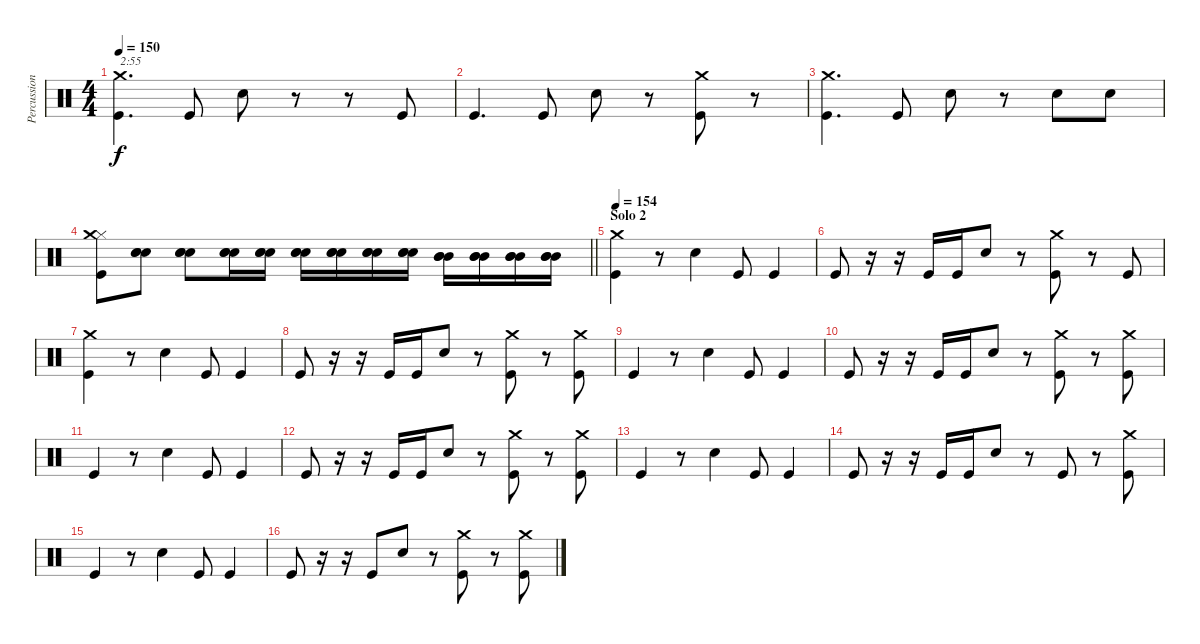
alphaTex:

\track ("Percussion" "Percussion") {instrument percussion}
\staff {score}
\articulation defaults
\ts (4 4)
\tempo 150
\clef neutral
\ks c
("Kick (hit)" "Crash medium (hit)").4{d txt "2:55" dy f} "Kick (hit)".8 "Electric Snare (hit)".8 r.8 r.8 "Kick (hit)".8 |
"Kick (hit)".4{d} "Kick (hit)".8 "Electric Snare (hit)".8 r.8 ("Kick (hit)" "Crash medium (hit)").8 r.8 |
("Kick (hit)" "Crash medium (hit)").4{d} "Kick (hit)".8 "Electric Snare (hit)".8 r.8 "Electric Snare (hit)".8 "Electric Snare (hit)".8 |
\barLineRight lightlight
("Kick (hit)" "Hi-Hat (closed)" "Crash medium (hit)").8 ("Electric Snare (hit)" "Electric Snare (hit)" "Electric Snare (hit)").8 ("Electric Snare (hit)" "Electric Snare (hit)" "Electric Snare (hit)").8 ("Electric Snare (hit)" "Electric Snare (hit)" "Electric Snare (hit)").16 ("Electric Snare (hit)" "Electric Snare (hit)" "Electric Snare (hit)").16 ("Electric Snare (hit)" "Electric Snare (hit)" "Electric Snare (hit)").16 ("Electric Snare (hit)" "Electric Snare (hit)" "Electric Snare (hit)").16 ("Electric Snare (hit)" "Electric Snare (hit)" "Electric Snare (hit)").16 ("Electric Snare (hit)" "Electric Snare (hit)" "Electric Snare (hit)").16 ("Mid Tom (hit)" "Mid Tom (hit)" "Mid Tom (hit)").16 ("Mid Tom (hit)" "Mid Tom (hit)" "Mid Tom (hit)").16 ("Mid Tom (hit)" "Mid Tom (hit)" "Mid Tom (hit)").16 ("Mid Tom (hit)" "Mid Tom (hit)" "Mid Tom (hit)").16 |
\section ("" "Solo 2")
\tempo 154
("Kick (hit)" "Crash medium (hit)").4 r.8 "Electric Snare (hit)".4 "Kick (hit)".8 "Kick (hit)".4 |
"Kick (hit)".8 r.16 r.16 "Kick (hit)".16 "Kick (hit)".16 "Electric Snare (hit)".8 r.8 ("Kick (hit)" "Crash medium (hit)").8 r.8 "Kick (hit)".8 |
("Kick (hit)" "Crash medium (hit)").4 r.8 "Electric Snare (hit)".4 "Kick (hit)".8 "Kick (hit)".4 |
"Kick (hit)".8 r.16 r.16 "Kick (hit)".16 "Kick (hit)".16 "Electric Snare (hit)".8 r.8 ("Kick (hit)" "Crash medium (hit)").8 r.8 ("Kick (hit)" "Crash medium (hit)").8 |
"Kick (hit)".4 r.8 "Electric Snare (hit)".4 "Kick (hit)".8 "Kick (hit)".4 |
"Kick (hit)".8 r.16 r.16 "Kick (hit)".16 "Kick (hit)".16 "Electric Snare (hit)".8 r.8 ("Kick (hit)" "Crash medium (hit)").8 r.8 ("Kick (hit)" "Crash medium (hit)").8 |
"Kick (hit)".4 r.8 "Electric Snare (hit)".4 "Kick (hit)".8 "Kick (hit)".4 |
"Kick (hit)".8 r.16 r.16 "Kick (hit)".16 "Kick (hit)".16 "Electric Snare (hit)".8 r.8 ("Kick (hit)" "Crash medium (hit)").8 r.8 ("Kick (hit)" "Crash medium (hit)").8 |
"Kick (hit)".4 r.8 "Electric Snare (hit)".4 "Kick (hit)".8 "Kick (hit)".4 |
"Kick (hit)".8 r.16 r.16 "Kick (hit)".16 "Kick (hit)".16 "Electric Snare (hit)".8 r.8 "Kick (hit)".8 r.8 ("Kick (hit)" "Crash medium (hit)").8 |
"Kick (hit)".4 r.8 "Electric Snare (hit)".4 "Kick (hit)".8 "Kick (hit)".4 |
"Kick (hit)".8 r.16 r.16 "Kick (hit)".8 "Electric Snare (hit)".8 r.8 ("Kick (hit)" "Crash medium (hit)").8 r.8 ("Kick (hit)" "Crash medium (hit)").8
